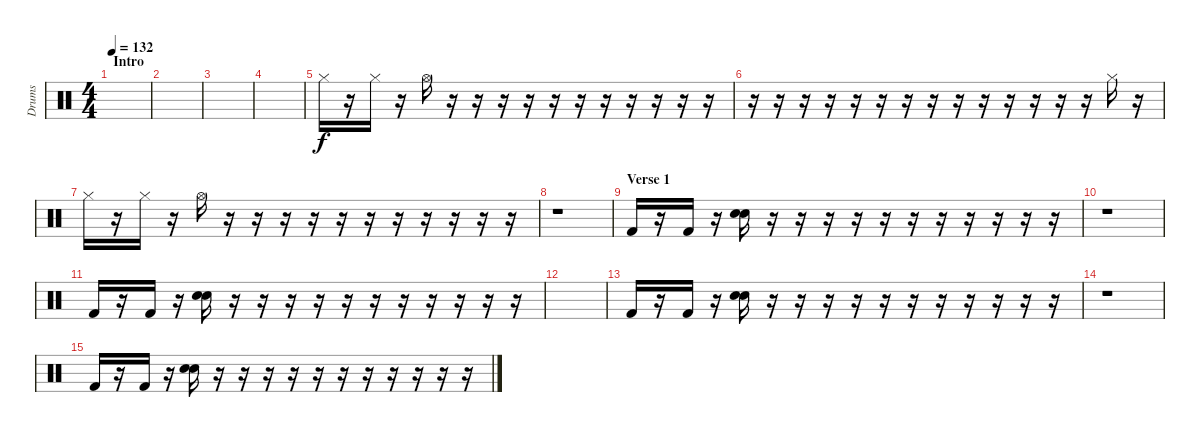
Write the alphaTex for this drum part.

\track ("Drums" "Drums") {instrument percussion}
\staff {score}
\articulation defaults
\ts (4 4)
\section ("" "Intro")
\tempo 132
\clef neutral
\ks c
|
|
|
|
"Hi-Hat (closed)".16 r.16 "Hi-Hat (closed)".16 r.16 "Hi-Hat (open)".16 r.16 r.16 r.16 r.16 r.16 r.16 r.16 r.16 r.16 r.16 r.16 |
r.16 r.16 r.16 r.16 r.16 r.16 r.16 r.16 r.16 r.16 r.16 r.16 r.16 r.16 "Hi-Hat (closed)".16 r.16 |
"Hi-Hat (closed)".16 r.16 "Hi-Hat (closed)".16 r.16 "Hi-Hat (open)".16 r.16 r.16 r.16 r.16 r.16 r.16 r.16 r.16 r.16 r.16 r.16 |
r.1 |
\section ("" "Verse 1")
"Kick (hit) 2".16 r.16 "Kick (hit) 2".16 r.16 ("Snare (hit) 2" "Snare (hit) 2").16 r.16 r.16 r.16 r.16 r.16 r.16 r.16 r.16 r.16 r.16 r.16 |
r.1 |
"Kick (hit) 2".16 r.16 "Kick (hit) 2".16 r.16 ("Snare (hit) 2" "Snare (hit) 2").16 r.16 r.16 r.16 r.16 r.16 r.16 r.16 r.16 r.16 r.16 r.16 |
|
"Kick (hit) 2".16 r.16 "Kick (hit) 2".16 r.16 ("Snare (hit) 2" "Snare (hit) 2").16 r.16 r.16 r.16 r.16 r.16 r.16 r.16 r.16 r.16 r.16 r.16 |
r.1 |
"Kick (hit) 2".16 r.16 "Kick (hit) 2".16 r.16 ("Snare (hit) 2" "Snare (hit) 2").16 r.16 r.16 r.16 r.16 r.16 r.16 r.16 r.16 r.16 r.16 r.16
